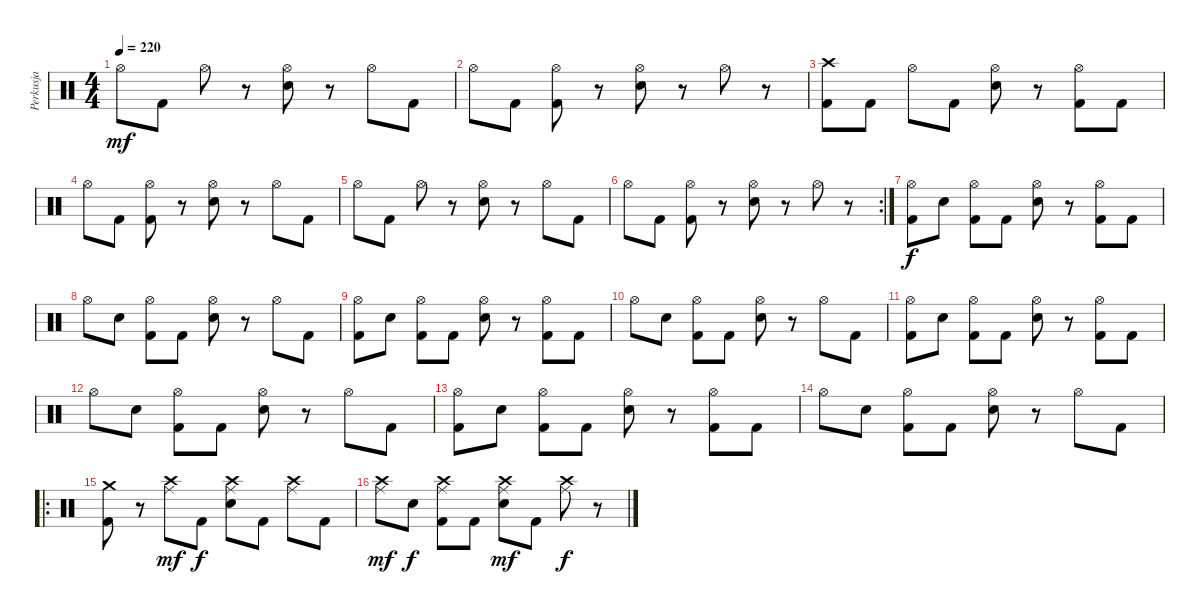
\track ("Perkusja" "Perkusja") {instrument percussion}
\staff {score}
\articulation defaults
\ts (4 4)
\tempo 220
\clef neutral
\ks c "Hi-Hat (open)".8{dy mf} "Kick (hit) 2".8 "Hi-Hat (open)".8
r.8 ("Hi-Hat (open)" "Snare (hit) 2").8 r.8 "Hi-Hat (open)".8 "Kick (hit) 2".8 |
"Hi-Hat (open)".8 "Kick (hit) 2".8 ("Hi-Hat (open)" "Kick (hit) 2").8 r.8 ("Hi-Hat (open)" "Snare (hit) 2").8 r.8 "Hi-Hat (open)".8 r.8 |
("Crash high (hit)" "Kick (hit) 2").8 "Kick (hit) 2".8 "Hi-Hat (open)".8 "Kick (hit) 2".8 ("Hi-Hat (open)" "Snare (hit) 2").8 r.8 ("Hi-Hat (open)" "Kick (hit) 2").8 "Kick (hit) 2".8 |
"Hi-Hat (open)".8 "Kick (hit) 2".8 ("Hi-Hat (open)" "Kick (hit) 2").8 r.8 ("Hi-Hat (open)" "Snare (hit) 2").8 r.8 "Hi-Hat (open)".8 "Kick (hit) 2".8 |
"Hi-Hat (open)".8 "Kick (hit) 2".8 "Hi-Hat (open)".8 r.8 ("Hi-Hat (open)" "Snare (hit) 2").8 r.8 "Hi-Hat (open)".8 "Kick (hit) 2".8 |
\rc 2 "Hi-Hat (open)".8 "Kick (hit) 2".8
("Hi-Hat (open)" "Kick (hit) 2").8 r.8 ("Hi-Hat (open)" "Snare (hit) 2").8 r.8 "Hi-Hat (open)".8 r.8 |
("Hi-Hat (open)" "Kick (hit) 2").8{dy f} "Snare (hit) 2".8 ("Hi-Hat (open)" "Kick (hit) 2").8 "Kick (hit) 2".8 ("Hi-Hat (open)" "Snare (hit) 2").8 r.8 ("Hi-Hat (open)" "Kick (hit) 2").8 "Kick (hit) 2".8 |
"Hi-Hat (open)".8 "Snare (hit) 2".8 ("Hi-Hat (open)" "Kick (hit) 2").8 "Kick (hit) 2".8 ("Hi-Hat (open)" "Snare (hit) 2").8 r.8 "Hi-Hat (open)".8 "Kick (hit) 2".8 |
("Hi-Hat (open)" "Kick (hit) 2").8 "Snare (hit) 2".8 ("Hi-Hat (open)" "Kick (hit) 2").8 "Kick (hit) 2".8 ("Hi-Hat (open)" "Snare (hit) 2").8 r.8 ("Hi-Hat (open)" "Kick (hit) 2").8 "Kick (hit) 2".8 |
"Hi-Hat (open)".8 "Snare (hit) 2".8 ("Hi-Hat (open)" "Kick (hit) 2").8 "Kick (hit) 2".8 ("Hi-Hat (open)" "Snare (hit) 2").8 r.8 "Hi-Hat (open)".8 "Kick (hit) 2".8 |
("Hi-Hat (open)" "Kick (hit) 2").8 "Snare (hit) 2".8 ("Hi-Hat (open)" "Kick (hit) 2").8 "Kick (hit) 2".8 ("Hi-Hat (open)" "Snare (hit) 2").8 r.8 ("Hi-Hat (open)" "Kick (hit) 2").8 "Kick (hit) 2".8 |
"Hi-Hat (open)".8 "Snare (hit) 2".8 ("Hi-Hat (open)" "Kick (hit) 2").8 "Kick (hit) 2".8 ("Hi-Hat (open)" "Snare (hit) 2").8 r.8 "Hi-Hat (open)".8 "Kick (hit) 2".8 |
("Hi-Hat (open)" "Kick (hit) 2").8 "Snare (hit) 2".8 ("Hi-Hat (open)" "Kick (hit) 2").8 "Kick (hit) 2".8 ("Hi-Hat (open)" "Snare (hit) 2").8 r.8 ("Hi-Hat (open)" "Kick (hit) 2").8 "Kick (hit) 2".8 |
"Hi-Hat (open)".8 "Snare (hit) 2".8 ("Hi-Hat (open)" "Kick (hit) 2").8 "Kick (hit) 2".8 ("Hi-Hat (open)" "Snare (hit) 2").8 r.8 "Hi-Hat (open)".8 "Kick (hit) 2".8 |
\ro
("Crash medium (hit)" "Kick (hit) 2").8 r.8 ("Crash high (hit)" "Ride (middle)").8{dy mf} "Kick (hit) 2".8{dy f} ("Crash high (hit)" "Snare (hit) 2" "Ride (middle)").8 "Kick (hit) 2".8 ("Crash high (hit)" "Ride (middle)").8 "Kick (hit) 2".8 |
("Crash high (hit)" "Ride (middle)").8{dy mf} "Snare (hit) 2".8{dy f} ("Crash high (hit)" "Kick (hit) 2" "Ride (middle)").8 "Kick (hit) 2".8 ("Crash high (hit)" "Snare (hit) 2" "Ride (middle)").8{dy mf} "Kick (hit) 2".8 ("Crash high (hit)" "Ride (middle)").8{dy f} r.8
